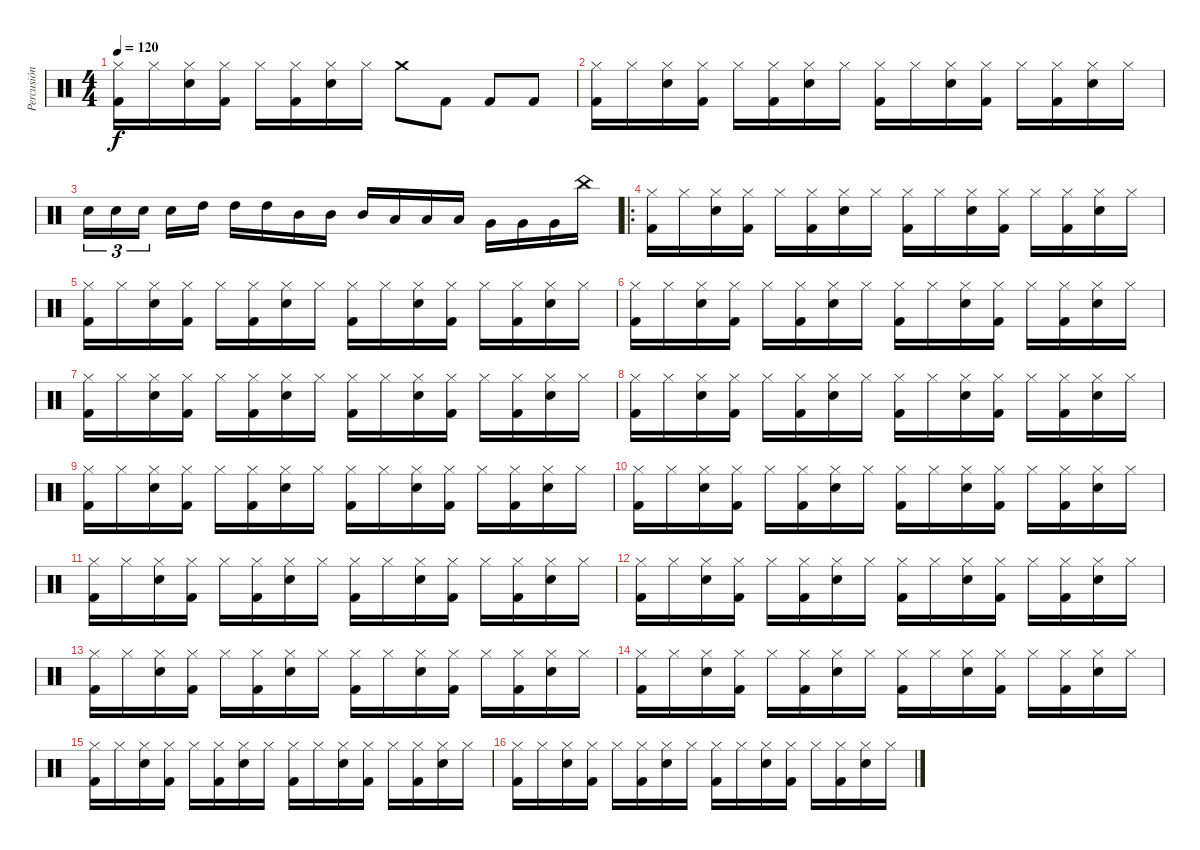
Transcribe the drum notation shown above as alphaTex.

\track ("Percusión" "Percusión") {instrument percussion}
\staff {score}
\articulation defaults
\ts (4 4)
\tempo 120
\clef neutral
\ks c
("Kick (hit) 2" "Hi-Hat (closed)").16{dy f} "Hi-Hat (closed)".16 ("Snare (hit) 2" "Hi-Hat (closed)").16 ("Kick (hit) 2" "Hi-Hat (closed)").16 "Hi-Hat (closed)".16 ("Kick (hit) 2" "Hi-Hat (closed)").16 ("Snare (hit) 2" "Hi-Hat (closed)").16 "Hi-Hat (closed)".16 "Crash medium (hit)".8 "Kick (hit) 2".8 "Kick (hit) 2".8 "Kick (hit) 2".8 |
("Kick (hit) 2" "Hi-Hat (closed)").16 "Hi-Hat (closed)".16 ("Snare (hit) 2" "Hi-Hat (closed)").16 ("Kick (hit) 2" "Hi-Hat (closed)").16 "Hi-Hat (closed)".16 ("Kick (hit) 2" "Hi-Hat (closed)").16 ("Snare (hit) 2" "Hi-Hat (closed)").16 "Hi-Hat (closed)".16 ("Kick (hit) 2" "Hi-Hat (closed)").16 "Hi-Hat (closed)".16 ("Snare (hit) 2" "Hi-Hat (closed)").16 ("Kick (hit) 2" "Hi-Hat (closed)").16 "Hi-Hat (closed)".16 ("Kick (hit) 2" "Hi-Hat (closed)").16 ("Snare (hit) 2" "Hi-Hat (closed)").16 "Hi-Hat (closed)".16 |
"Electric Snare (hit)".16{tu (3 2)} "Electric Snare (hit)".16{tu (3 2)} "Electric Snare (hit)".16{tu (3 2) beam splitsecondary} "Electric Snare (hit)".16 "High Tom (hit)".16 "High Tom (hit)".16 "High Tom (hit)".16 "Mid Tom (hit)".16 "Mid Tom (hit)".16 "Mid Tom (hit)".16 "Low Tom (hit)".16 "Low Tom (hit)".16 "Low Tom (hit)".16 "Very Low Tom (hit)".16 "Very Low Tom (hit)".16 "Very Low Tom (hit)".16 "China (hit)".16 |
\ro
("Kick (hit) 2" "Hi-Hat (closed)").16 "Hi-Hat (closed)".16 ("Snare (hit) 2" "Hi-Hat (closed)").16 ("Kick (hit) 2" "Hi-Hat (closed)").16 "Hi-Hat (closed)".16 ("Kick (hit) 2" "Hi-Hat (closed)").16 ("Snare (hit) 2" "Hi-Hat (closed)").16 "Hi-Hat (closed)".16 ("Kick (hit) 2" "Hi-Hat (closed)").16 "Hi-Hat (closed)".16 ("Snare (hit) 2" "Hi-Hat (closed)").16 ("Kick (hit) 2" "Hi-Hat (closed)").16 "Hi-Hat (closed)".16 ("Kick (hit) 2" "Hi-Hat (closed)").16 ("Snare (hit) 2" "Hi-Hat (closed)").16 "Hi-Hat (closed)".16 |
("Kick (hit) 2" "Hi-Hat (closed)").16 "Hi-Hat (closed)".16 ("Snare (hit) 2" "Hi-Hat (closed)").16 ("Kick (hit) 2" "Hi-Hat (closed)").16 "Hi-Hat (closed)".16 ("Kick (hit) 2" "Hi-Hat (closed)").16 ("Snare (hit) 2" "Hi-Hat (closed)").16 "Hi-Hat (closed)".16 ("Kick (hit) 2" "Hi-Hat (closed)").16 "Hi-Hat (closed)".16 ("Snare (hit) 2" "Hi-Hat (closed)").16 ("Kick (hit) 2" "Hi-Hat (closed)").16 "Hi-Hat (closed)".16 ("Kick (hit) 2" "Hi-Hat (closed)").16 ("Snare (hit) 2" "Hi-Hat (closed)").16 "Hi-Hat (closed)".16 |
("Kick (hit) 2" "Hi-Hat (closed)").16 "Hi-Hat (closed)".16 ("Snare (hit) 2" "Hi-Hat (closed)").16 ("Kick (hit) 2" "Hi-Hat (closed)").16 "Hi-Hat (closed)".16 ("Kick (hit) 2" "Hi-Hat (closed)").16 ("Snare (hit) 2" "Hi-Hat (closed)").16 "Hi-Hat (closed)".16 ("Kick (hit) 2" "Hi-Hat (closed)").16 "Hi-Hat (closed)".16 ("Snare (hit) 2" "Hi-Hat (closed)").16 ("Kick (hit) 2" "Hi-Hat (closed)").16 "Hi-Hat (closed)".16 ("Kick (hit) 2" "Hi-Hat (closed)").16 ("Snare (hit) 2" "Hi-Hat (closed)").16 "Hi-Hat (closed)".16 |
("Kick (hit) 2" "Hi-Hat (closed)").16 "Hi-Hat (closed)".16 ("Snare (hit) 2" "Hi-Hat (closed)").16 ("Kick (hit) 2" "Hi-Hat (closed)").16 "Hi-Hat (closed)".16 ("Kick (hit) 2" "Hi-Hat (closed)").16 ("Snare (hit) 2" "Hi-Hat (closed)").16 "Hi-Hat (closed)".16 ("Kick (hit) 2" "Hi-Hat (closed)").16 "Hi-Hat (closed)".16 ("Snare (hit) 2" "Hi-Hat (closed)").16 ("Kick (hit) 2" "Hi-Hat (closed)").16 "Hi-Hat (closed)".16 ("Kick (hit) 2" "Hi-Hat (closed)").16 ("Snare (hit) 2" "Hi-Hat (closed)").16 "Hi-Hat (closed)".16 |
("Kick (hit) 2" "Hi-Hat (closed)").16 "Hi-Hat (closed)".16 ("Snare (hit) 2" "Hi-Hat (closed)").16 ("Kick (hit) 2" "Hi-Hat (closed)").16 "Hi-Hat (closed)".16 ("Kick (hit) 2" "Hi-Hat (closed)").16 ("Snare (hit) 2" "Hi-Hat (closed)").16 "Hi-Hat (closed)".16 ("Kick (hit) 2" "Hi-Hat (closed)").16 "Hi-Hat (closed)".16 ("Snare (hit) 2" "Hi-Hat (closed)").16 ("Kick (hit) 2" "Hi-Hat (closed)").16 "Hi-Hat (closed)".16 ("Kick (hit) 2" "Hi-Hat (closed)").16 ("Snare (hit) 2" "Hi-Hat (closed)").16 "Hi-Hat (closed)".16 |
("Kick (hit) 2" "Hi-Hat (closed)").16 "Hi-Hat (closed)".16 ("Snare (hit) 2" "Hi-Hat (closed)").16 ("Kick (hit) 2" "Hi-Hat (closed)").16 "Hi-Hat (closed)".16 ("Kick (hit) 2" "Hi-Hat (closed)").16 ("Snare (hit) 2" "Hi-Hat (closed)").16 "Hi-Hat (closed)".16 ("Kick (hit) 2" "Hi-Hat (closed)").16 "Hi-Hat (closed)".16 ("Snare (hit) 2" "Hi-Hat (closed)").16 ("Kick (hit) 2" "Hi-Hat (closed)").16 "Hi-Hat (closed)".16 ("Kick (hit) 2" "Hi-Hat (closed)").16 ("Snare (hit) 2" "Hi-Hat (closed)").16 "Hi-Hat (closed)".16 |
("Kick (hit) 2" "Hi-Hat (closed)").16 "Hi-Hat (closed)".16 ("Snare (hit) 2" "Hi-Hat (closed)").16 ("Kick (hit) 2" "Hi-Hat (closed)").16 "Hi-Hat (closed)".16 ("Kick (hit) 2" "Hi-Hat (closed)").16 ("Snare (hit) 2" "Hi-Hat (closed)").16 "Hi-Hat (closed)".16 ("Kick (hit) 2" "Hi-Hat (closed)").16 "Hi-Hat (closed)".16 ("Snare (hit) 2" "Hi-Hat (closed)").16 ("Kick (hit) 2" "Hi-Hat (closed)").16 "Hi-Hat (closed)".16 ("Kick (hit) 2" "Hi-Hat (closed)").16 ("Snare (hit) 2" "Hi-Hat (closed)").16 "Hi-Hat (closed)".16 |
("Kick (hit) 2" "Hi-Hat (closed)").16 "Hi-Hat (closed)".16 ("Snare (hit) 2" "Hi-Hat (closed)").16 ("Kick (hit) 2" "Hi-Hat (closed)").16 "Hi-Hat (closed)".16 ("Kick (hit) 2" "Hi-Hat (closed)").16 ("Snare (hit) 2" "Hi-Hat (closed)").16 "Hi-Hat (closed)".16 ("Kick (hit) 2" "Hi-Hat (closed)").16 "Hi-Hat (closed)".16 ("Snare (hit) 2" "Hi-Hat (closed)").16 ("Kick (hit) 2" "Hi-Hat (closed)").16 "Hi-Hat (closed)".16 ("Kick (hit) 2" "Hi-Hat (closed)").16 ("Snare (hit) 2" "Hi-Hat (closed)").16 "Hi-Hat (closed)".16 |
("Kick (hit) 2" "Hi-Hat (closed)").16 "Hi-Hat (closed)".16 ("Snare (hit) 2" "Hi-Hat (closed)").16 ("Kick (hit) 2" "Hi-Hat (closed)").16 "Hi-Hat (closed)".16 ("Kick (hit) 2" "Hi-Hat (closed)").16 ("Snare (hit) 2" "Hi-Hat (closed)").16 "Hi-Hat (closed)".16 ("Kick (hit) 2" "Hi-Hat (closed)").16 "Hi-Hat (closed)".16 ("Snare (hit) 2" "Hi-Hat (closed)").16 ("Kick (hit) 2" "Hi-Hat (closed)").16 "Hi-Hat (closed)".16 ("Kick (hit) 2" "Hi-Hat (closed)").16 ("Snare (hit) 2" "Hi-Hat (closed)").16 "Hi-Hat (closed)".16 |
("Kick (hit) 2" "Hi-Hat (closed)").16 "Hi-Hat (closed)".16 ("Snare (hit) 2" "Hi-Hat (closed)").16 ("Kick (hit) 2" "Hi-Hat (closed)").16 "Hi-Hat (closed)".16 ("Kick (hit) 2" "Hi-Hat (closed)").16 ("Snare (hit) 2" "Hi-Hat (closed)").16 "Hi-Hat (closed)".16 ("Kick (hit) 2" "Hi-Hat (closed)").16 "Hi-Hat (closed)".16 ("Snare (hit) 2" "Hi-Hat (closed)").16 ("Kick (hit) 2" "Hi-Hat (closed)").16 "Hi-Hat (closed)".16 ("Kick (hit) 2" "Hi-Hat (closed)").16 ("Snare (hit) 2" "Hi-Hat (closed)").16 "Hi-Hat (closed)".16 |
("Kick (hit) 2" "Hi-Hat (closed)").16 "Hi-Hat (closed)".16 ("Snare (hit) 2" "Hi-Hat (closed)").16 ("Kick (hit) 2" "Hi-Hat (closed)").16 "Hi-Hat (closed)".16 ("Kick (hit) 2" "Hi-Hat (closed)").16 ("Snare (hit) 2" "Hi-Hat (closed)").16 "Hi-Hat (closed)".16 ("Kick (hit) 2" "Hi-Hat (closed)").16 "Hi-Hat (closed)".16 ("Snare (hit) 2" "Hi-Hat (closed)").16 ("Kick (hit) 2" "Hi-Hat (closed)").16 "Hi-Hat (closed)".16 ("Kick (hit) 2" "Hi-Hat (closed)").16 ("Snare (hit) 2" "Hi-Hat (closed)").16 "Hi-Hat (closed)".16 |
("Kick (hit) 2" "Hi-Hat (closed)").16 "Hi-Hat (closed)".16 ("Snare (hit) 2" "Hi-Hat (closed)").16 ("Kick (hit) 2" "Hi-Hat (closed)").16 "Hi-Hat (closed)".16 ("Kick (hit) 2" "Hi-Hat (closed)").16 ("Snare (hit) 2" "Hi-Hat (closed)").16 "Hi-Hat (closed)".16 ("Kick (hit) 2" "Hi-Hat (closed)").16 "Hi-Hat (closed)".16 ("Snare (hit) 2" "Hi-Hat (closed)").16 ("Kick (hit) 2" "Hi-Hat (closed)").16 "Hi-Hat (closed)".16 ("Kick (hit) 2" "Hi-Hat (closed)").16 ("Snare (hit) 2" "Hi-Hat (closed)").16 "Hi-Hat (closed)".16 |
("Kick (hit) 2" "Hi-Hat (closed)").16 "Hi-Hat (closed)".16 ("Snare (hit) 2" "Hi-Hat (closed)").16 ("Kick (hit) 2" "Hi-Hat (closed)").16 "Hi-Hat (closed)".16 ("Kick (hit) 2" "Hi-Hat (closed)").16 ("Snare (hit) 2" "Hi-Hat (closed)").16 "Hi-Hat (closed)".16 ("Kick (hit) 2" "Hi-Hat (closed)").16 "Hi-Hat (closed)".16 ("Snare (hit) 2" "Hi-Hat (closed)").16 ("Kick (hit) 2" "Hi-Hat (closed)").16 "Hi-Hat (closed)".16 ("Kick (hit) 2" "Hi-Hat (closed)").16 ("Snare (hit) 2" "Hi-Hat (closed)").16 "Hi-Hat (closed)".16
